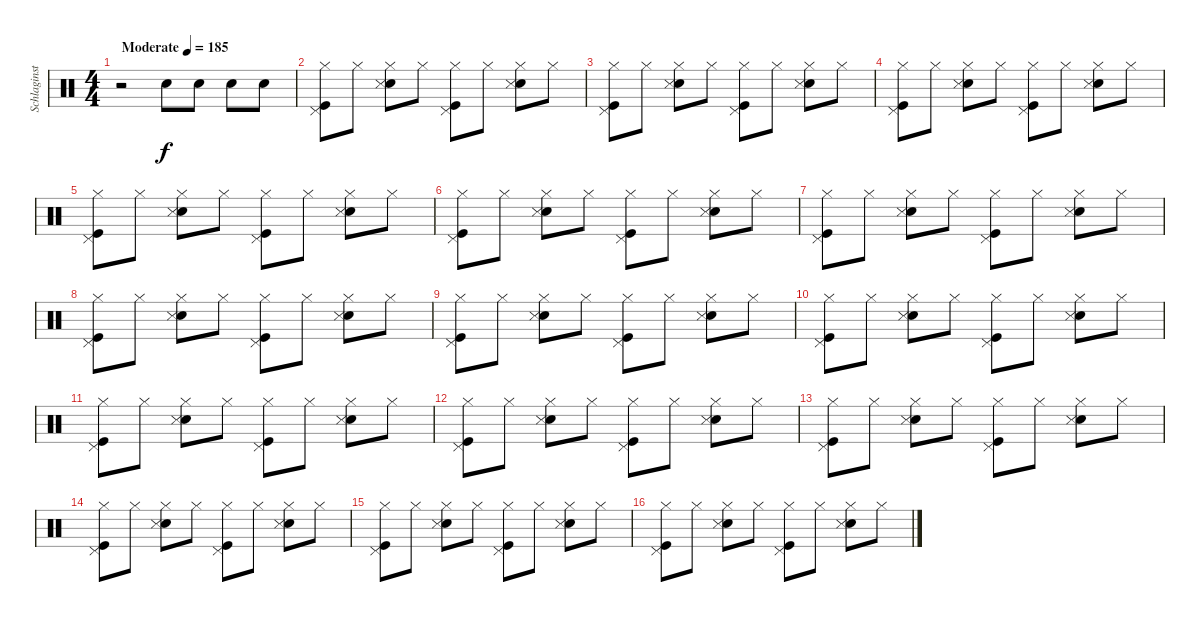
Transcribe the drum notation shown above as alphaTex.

\track ("Schlaginstrumente - Auswahl" "Schlaginst") {instrument percussion}
\staff {score}
\articulation defaults
\ts (4 4)
\tempo (185 "Moderate")
\clef neutral
\ks c
r.2{dy f} "Snare (hit) 2".8 "Snare (hit) 2".8 "Snare (hit) 2".8 "Snare (hit) 2".8 |
("Kick (hit)" "Pedal Hi-Hat (hit)" "Hi-Hat (closed)").8 "Hi-Hat (closed)".8 ("Snare (hit) 2" "Snare (side stick) 3" "Hi-Hat (closed)").8 "Hi-Hat (closed)".8 ("Kick (hit)" "Pedal Hi-Hat (hit)" "Hi-Hat (closed)").8 "Hi-Hat (closed)".8 ("Snare (hit) 2" "Snare (side stick) 3" "Hi-Hat (closed)").8 "Hi-Hat (closed)".8 |
("Kick (hit)" "Pedal Hi-Hat (hit)" "Hi-Hat (closed)").8 "Hi-Hat (closed)".8 ("Snare (hit) 2" "Snare (side stick) 3" "Hi-Hat (closed)").8 "Hi-Hat (closed)".8 ("Kick (hit)" "Pedal Hi-Hat (hit)" "Hi-Hat (closed)").8 "Hi-Hat (closed)".8 ("Snare (hit) 2" "Snare (side stick) 3" "Hi-Hat (closed)").8 "Hi-Hat (closed)".8 |
("Kick (hit)" "Pedal Hi-Hat (hit)" "Hi-Hat (closed)").8 "Hi-Hat (closed)".8 ("Snare (hit) 2" "Snare (side stick) 3" "Hi-Hat (closed)").8 "Hi-Hat (closed)".8 ("Kick (hit)" "Pedal Hi-Hat (hit)" "Hi-Hat (closed)").8 "Hi-Hat (closed)".8 ("Snare (hit) 2" "Snare (side stick) 3" "Hi-Hat (closed)").8 "Hi-Hat (closed)".8 |
("Kick (hit)" "Pedal Hi-Hat (hit)" "Hi-Hat (closed)").8 "Hi-Hat (closed)".8 ("Snare (hit) 2" "Snare (side stick) 3" "Hi-Hat (closed)").8 "Hi-Hat (closed)".8 ("Kick (hit)" "Pedal Hi-Hat (hit)" "Hi-Hat (closed)").8 "Hi-Hat (closed)".8 ("Snare (hit) 2" "Snare (side stick) 3" "Hi-Hat (closed)").8 "Hi-Hat (closed)".8 |
("Kick (hit)" "Pedal Hi-Hat (hit)" "Hi-Hat (closed)").8 "Hi-Hat (closed)".8 ("Snare (hit) 2" "Snare (side stick) 3" "Hi-Hat (closed)").8 "Hi-Hat (closed)".8 ("Kick (hit)" "Pedal Hi-Hat (hit)" "Hi-Hat (closed)").8 "Hi-Hat (closed)".8 ("Snare (hit) 2" "Snare (side stick) 3" "Hi-Hat (closed)").8 "Hi-Hat (closed)".8 |
("Kick (hit)" "Pedal Hi-Hat (hit)" "Hi-Hat (closed)").8 "Hi-Hat (closed)".8 ("Snare (hit) 2" "Snare (side stick) 3" "Hi-Hat (closed)").8 "Hi-Hat (closed)".8 ("Kick (hit)" "Pedal Hi-Hat (hit)" "Hi-Hat (closed)").8 "Hi-Hat (closed)".8 ("Snare (hit) 2" "Snare (side stick) 3" "Hi-Hat (closed)").8 "Hi-Hat (closed)".8 |
("Kick (hit)" "Pedal Hi-Hat (hit)" "Hi-Hat (closed)").8 "Hi-Hat (closed)".8 ("Snare (hit) 2" "Snare (side stick) 3" "Hi-Hat (closed)").8 "Hi-Hat (closed)".8 ("Kick (hit)" "Pedal Hi-Hat (hit)" "Hi-Hat (closed)").8 "Hi-Hat (closed)".8 ("Snare (hit) 2" "Snare (side stick) 3" "Hi-Hat (closed)").8 "Hi-Hat (closed)".8 |
("Kick (hit)" "Pedal Hi-Hat (hit)" "Hi-Hat (closed)").8 "Hi-Hat (closed)".8 ("Snare (hit) 2" "Snare (side stick) 3" "Hi-Hat (closed)").8 "Hi-Hat (closed)".8 ("Kick (hit)" "Pedal Hi-Hat (hit)" "Hi-Hat (closed)").8 "Hi-Hat (closed)".8 ("Snare (hit) 2" "Snare (side stick) 3" "Hi-Hat (closed)").8 "Hi-Hat (closed)".8 |
("Kick (hit)" "Pedal Hi-Hat (hit)" "Hi-Hat (closed)").8 "Hi-Hat (closed)".8 ("Snare (hit) 2" "Snare (side stick) 3" "Hi-Hat (closed)").8 "Hi-Hat (closed)".8 ("Kick (hit)" "Pedal Hi-Hat (hit)" "Hi-Hat (closed)").8 "Hi-Hat (closed)".8 ("Snare (hit) 2" "Snare (side stick) 3" "Hi-Hat (closed)").8 "Hi-Hat (closed)".8 |
("Kick (hit)" "Pedal Hi-Hat (hit)" "Hi-Hat (closed)").8 "Hi-Hat (closed)".8 ("Snare (hit) 2" "Snare (side stick) 3" "Hi-Hat (closed)").8 "Hi-Hat (closed)".8 ("Kick (hit)" "Pedal Hi-Hat (hit)" "Hi-Hat (closed)").8 "Hi-Hat (closed)".8 ("Snare (hit) 2" "Snare (side stick) 3" "Hi-Hat (closed)").8 "Hi-Hat (closed)".8 |
("Kick (hit)" "Pedal Hi-Hat (hit)" "Hi-Hat (closed)").8 "Hi-Hat (closed)".8 ("Snare (hit) 2" "Snare (side stick) 3" "Hi-Hat (closed)").8 "Hi-Hat (closed)".8 ("Kick (hit)" "Pedal Hi-Hat (hit)" "Hi-Hat (closed)").8 "Hi-Hat (closed)".8 ("Snare (hit) 2" "Snare (side stick) 3" "Hi-Hat (closed)").8 "Hi-Hat (closed)".8 |
("Kick (hit)" "Pedal Hi-Hat (hit)" "Hi-Hat (closed)").8 "Hi-Hat (closed)".8 ("Snare (hit) 2" "Snare (side stick) 3" "Hi-Hat (closed)").8 "Hi-Hat (closed)".8 ("Kick (hit)" "Pedal Hi-Hat (hit)" "Hi-Hat (closed)").8 "Hi-Hat (closed)".8 ("Snare (hit) 2" "Snare (side stick) 3" "Hi-Hat (closed)").8 "Hi-Hat (closed)".8 |
("Kick (hit)" "Pedal Hi-Hat (hit)" "Hi-Hat (closed)").8 "Hi-Hat (closed)".8 ("Snare (hit) 2" "Snare (side stick) 3" "Hi-Hat (closed)").8 "Hi-Hat (closed)".8 ("Kick (hit)" "Pedal Hi-Hat (hit)" "Hi-Hat (closed)").8 "Hi-Hat (closed)".8 ("Snare (hit) 2" "Snare (side stick) 3" "Hi-Hat (closed)").8 "Hi-Hat (closed)".8 |
("Kick (hit)" "Pedal Hi-Hat (hit)" "Hi-Hat (closed)").8 "Hi-Hat (closed)".8 ("Snare (hit) 2" "Snare (side stick) 3" "Hi-Hat (closed)").8 "Hi-Hat (closed)".8 ("Kick (hit)" "Pedal Hi-Hat (hit)" "Hi-Hat (closed)").8 "Hi-Hat (closed)".8 ("Snare (hit) 2" "Snare (side stick) 3" "Hi-Hat (closed)").8 "Hi-Hat (closed)".8 |
("Kick (hit)" "Pedal Hi-Hat (hit)" "Hi-Hat (closed)").8 "Hi-Hat (closed)".8 ("Snare (hit) 2" "Snare (side stick) 3" "Hi-Hat (closed)").8 "Hi-Hat (closed)".8 ("Kick (hit)" "Pedal Hi-Hat (hit)" "Hi-Hat (closed)").8 "Hi-Hat (closed)".8 ("Snare (hit) 2" "Snare (side stick) 3" "Hi-Hat (closed)").8 "Hi-Hat (closed)".8
